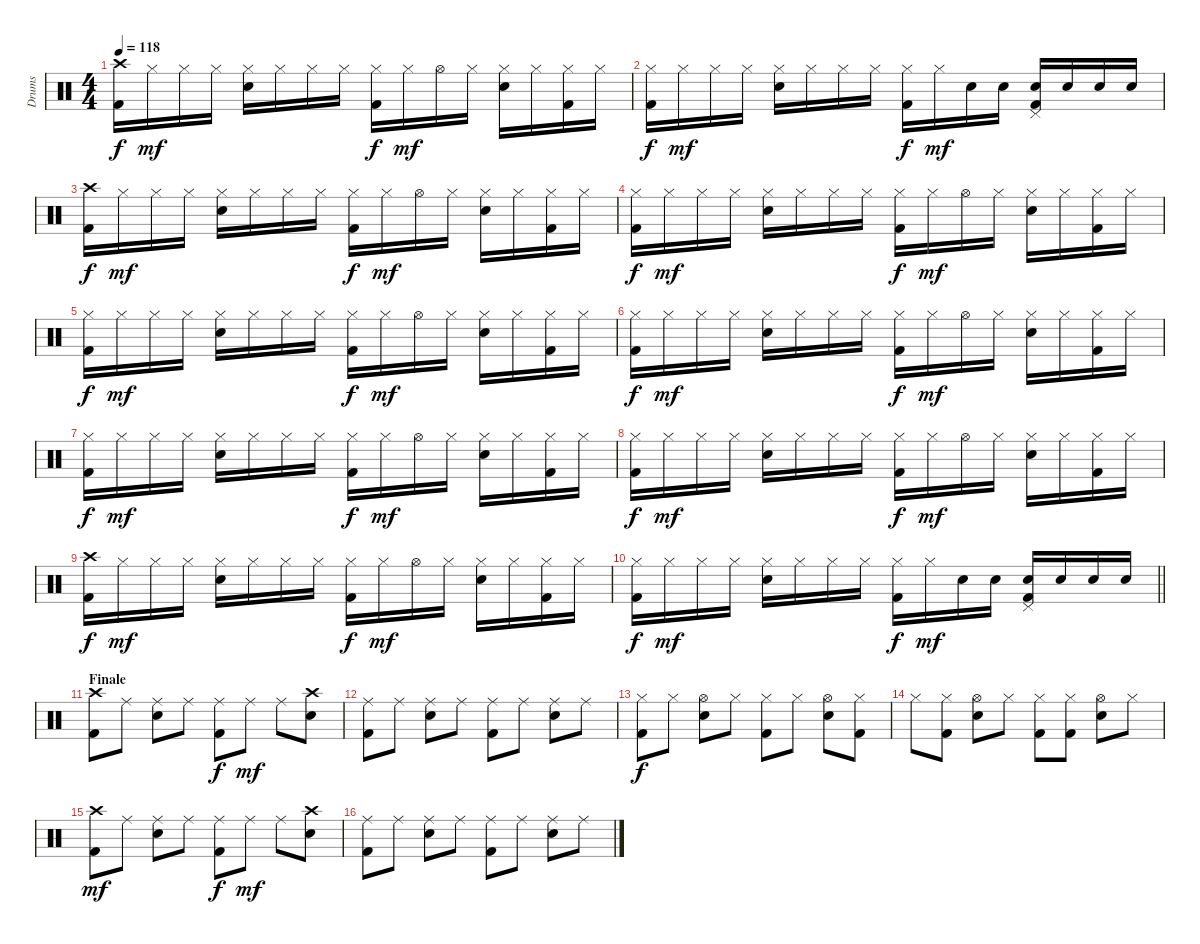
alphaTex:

\track ("Drums" "Drums") {instrument percussion}
\staff {score}
\articulation defaults
\ts (4 4)
\tempo 118
\clef neutral
\ks c
("Crash high (hit)" "Kick (hit) 2").16{dy f} "Hi-Hat (closed)".16{dy mf} "Hi-Hat (closed)".16 "Hi-Hat (closed)".16 ("Hi-Hat (closed)" "Snare (hit) 2").16 "Hi-Hat (closed)".16 "Hi-Hat (closed)".16 "Hi-Hat (closed)".16 ("Hi-Hat (closed)" "Kick (hit) 2").16{dy f} "Hi-Hat (closed)".16{dy mf} "Hi-Hat (open)".16 "Hi-Hat (closed)".16 ("Hi-Hat (closed)" "Snare (hit) 2").16 "Hi-Hat (closed)".16 ("Hi-Hat (closed)" "Kick (hit) 2").16 "Hi-Hat (closed)".16 |
("Hi-Hat (closed)" "Kick (hit) 2").16{dy f} "Hi-Hat (closed)".16{dy mf} "Hi-Hat (closed)".16 "Hi-Hat (closed)".16 ("Hi-Hat (closed)" "Snare (hit) 2").16 "Hi-Hat (closed)".16 "Hi-Hat (closed)".16 "Hi-Hat (closed)".16 ("Hi-Hat (closed)" "Kick (hit) 2").16{dy f} "Hi-Hat (closed)".16{dy mf} "Snare (hit) 2".16 "Snare (hit) 2".16 ("Pedal Hi-Hat (hit)" "Snare (hit) 2" "Kick (hit) 2").16 "Snare (hit) 2".16 "Snare (hit) 2".16 "Snare (hit) 2".16 |
("Crash high (hit)" "Kick (hit) 2").16{dy f} "Hi-Hat (closed)".16{dy mf} "Hi-Hat (closed)".16 "Hi-Hat (closed)".16 ("Hi-Hat (closed)" "Snare (hit) 2").16 "Hi-Hat (closed)".16 "Hi-Hat (closed)".16 "Hi-Hat (closed)".16 ("Hi-Hat (closed)" "Kick (hit) 2").16{dy f} "Hi-Hat (closed)".16{dy mf} "Hi-Hat (open)".16 "Hi-Hat (closed)".16 ("Hi-Hat (closed)" "Snare (hit) 2").16 "Hi-Hat (closed)".16 ("Hi-Hat (closed)" "Kick (hit) 2").16 "Hi-Hat (closed)".16 |
("Hi-Hat (closed)" "Kick (hit) 2").16{dy f} "Hi-Hat (closed)".16{dy mf} "Hi-Hat (closed)".16 "Hi-Hat (closed)".16 ("Hi-Hat (closed)" "Snare (hit) 2").16 "Hi-Hat (closed)".16 "Hi-Hat (closed)".16 "Hi-Hat (closed)".16 ("Hi-Hat (closed)" "Kick (hit) 2").16{dy f} "Hi-Hat (closed)".16{dy mf} "Hi-Hat (open)".16 "Hi-Hat (closed)".16 ("Hi-Hat (closed)" "Snare (hit) 2").16 "Hi-Hat (closed)".16 ("Hi-Hat (closed)" "Kick (hit) 2").16 "Hi-Hat (closed)".16 |
("Hi-Hat (closed)" "Kick (hit) 2").16{dy f} "Hi-Hat (closed)".16{dy mf} "Hi-Hat (closed)".16 "Hi-Hat (closed)".16 ("Hi-Hat (closed)" "Snare (hit) 2").16 "Hi-Hat (closed)".16 "Hi-Hat (closed)".16 "Hi-Hat (closed)".16 ("Hi-Hat (closed)" "Kick (hit) 2").16{dy f} "Hi-Hat (closed)".16{dy mf} "Hi-Hat (open)".16 "Hi-Hat (closed)".16 ("Hi-Hat (closed)" "Snare (hit) 2").16 "Hi-Hat (closed)".16 ("Hi-Hat (closed)" "Kick (hit) 2").16 "Hi-Hat (closed)".16 |
("Hi-Hat (closed)" "Kick (hit) 2").16{dy f} "Hi-Hat (closed)".16{dy mf} "Hi-Hat (closed)".16 "Hi-Hat (closed)".16 ("Hi-Hat (closed)" "Snare (hit) 2").16 "Hi-Hat (closed)".16 "Hi-Hat (closed)".16 "Hi-Hat (closed)".16 ("Hi-Hat (closed)" "Kick (hit) 2").16{dy f} "Hi-Hat (closed)".16{dy mf} "Hi-Hat (open)".16 "Hi-Hat (closed)".16 ("Hi-Hat (closed)" "Snare (hit) 2").16 "Hi-Hat (closed)".16 ("Hi-Hat (closed)" "Kick (hit) 2").16 "Hi-Hat (closed)".16 |
("Hi-Hat (closed)" "Kick (hit) 2").16{dy f} "Hi-Hat (closed)".16{dy mf} "Hi-Hat (closed)".16 "Hi-Hat (closed)".16 ("Hi-Hat (closed)" "Snare (hit) 2").16 "Hi-Hat (closed)".16 "Hi-Hat (closed)".16 "Hi-Hat (closed)".16 ("Hi-Hat (closed)" "Kick (hit) 2").16{dy f} "Hi-Hat (closed)".16{dy mf} "Hi-Hat (open)".16 "Hi-Hat (closed)".16 ("Hi-Hat (closed)" "Snare (hit) 2").16 "Hi-Hat (closed)".16 ("Hi-Hat (closed)" "Kick (hit) 2").16 "Hi-Hat (closed)".16 |
("Hi-Hat (closed)" "Kick (hit) 2").16{dy f} "Hi-Hat (closed)".16{dy mf} "Hi-Hat (closed)".16 "Hi-Hat (closed)".16 ("Hi-Hat (closed)" "Snare (hit) 2").16 "Hi-Hat (closed)".16 "Hi-Hat (closed)".16 "Hi-Hat (closed)".16 ("Hi-Hat (closed)" "Kick (hit) 2").16{dy f} "Hi-Hat (closed)".16{dy mf} "Hi-Hat (open)".16 "Hi-Hat (closed)".16 ("Hi-Hat (closed)" "Snare (hit) 2").16 "Hi-Hat (closed)".16 ("Hi-Hat (closed)" "Kick (hit) 2").16 "Hi-Hat (closed)".16 |
("Crash high (hit)" "Kick (hit) 2").16{dy f} "Hi-Hat (closed)".16{dy mf} "Hi-Hat (closed)".16 "Hi-Hat (closed)".16 ("Hi-Hat (closed)" "Snare (hit) 2").16 "Hi-Hat (closed)".16 "Hi-Hat (closed)".16 "Hi-Hat (closed)".16 ("Hi-Hat (closed)" "Kick (hit) 2").16{dy f} "Hi-Hat (closed)".16{dy mf} "Hi-Hat (open)".16 "Hi-Hat (closed)".16 ("Hi-Hat (closed)" "Snare (hit) 2").16 "Hi-Hat (closed)".16 ("Hi-Hat (closed)" "Kick (hit) 2").16 "Hi-Hat (closed)".16 |
\barLineRight lightlight
("Hi-Hat (closed)" "Kick (hit) 2").16{dy f} "Hi-Hat (closed)".16{dy mf} "Hi-Hat (closed)".16 "Hi-Hat (closed)".16 ("Hi-Hat (closed)" "Snare (hit) 2").16 "Hi-Hat (closed)".16 "Hi-Hat (closed)".16 "Hi-Hat (closed)".16 ("Hi-Hat (closed)" "Kick (hit) 2").16{dy f} "Hi-Hat (closed)".16{dy mf} "Snare (hit) 2".16 "Snare (hit) 2".16 ("Pedal Hi-Hat (hit)" "Snare (hit) 2" "Kick (hit) 2").16 "Snare (hit) 2".16 "Snare (hit) 2".16 "Snare (hit) 2".16 |
\section ("" "Finale")
("Crash high (hit)" "Kick (hit) 2").8 "Ride (middle)".8 ("Ride (middle)" "Snare (hit) 2").8 "Ride (middle)".8 ("Ride (middle)" "Kick (hit) 2").8{dy f} "Ride (middle)".8{dy mf} "Ride (middle)".8 ("Crash high (hit)" "Snare (hit) 2").8 |
("Ride (middle)" "Kick (hit) 2").8 "Ride (middle)".8 ("Ride (middle)" "Snare (hit) 2").8 "Ride (middle)".8 ("Ride (middle)" "Kick (hit) 2").8 "Ride (middle)".8 ("Ride (middle)" "Snare (hit) 2").8 "Ride (middle)".8 |
("Hi-Hat (closed)" "Kick (hit) 2").8{dy f} "Hi-Hat (closed)".8 ("Hi-Hat (open)" "Snare (hit) 2").8 "Hi-Hat (closed)".8 ("Hi-Hat (closed)" "Kick (hit) 2").8 "Hi-Hat (closed)".8 ("Hi-Hat (open)" "Snare (hit) 2").8 ("Hi-Hat (closed)" "Kick (hit) 2").8 |
"Hi-Hat (closed)".8 ("Hi-Hat (closed)" "Kick (hit) 2").8 ("Hi-Hat (open)" "Snare (hit) 2").8 "Hi-Hat (closed)".8 ("Hi-Hat (closed)" "Kick (hit) 2").8 ("Hi-Hat (closed)" "Kick (hit) 2").8 ("Hi-Hat (open)" "Snare (hit) 2").8 "Hi-Hat (closed)".8 |
("Crash high (hit)" "Kick (hit) 2").8{dy mf} "Ride (middle)".8 ("Ride (middle)" "Snare (hit) 2").8 "Ride (middle)".8 ("Ride (middle)" "Kick (hit) 2").8{dy f} "Ride (middle)".8{dy mf} "Ride (middle)".8 ("Crash high (hit)" "Snare (hit) 2").8 |
("Ride (middle)" "Kick (hit) 2").8 "Ride (middle)".8 ("Ride (middle)" "Snare (hit) 2").8 "Ride (middle)".8 ("Ride (middle)" "Kick (hit) 2").8 "Ride (middle)".8 ("Ride (middle)" "Snare (hit) 2").8 "Ride (middle)".8
